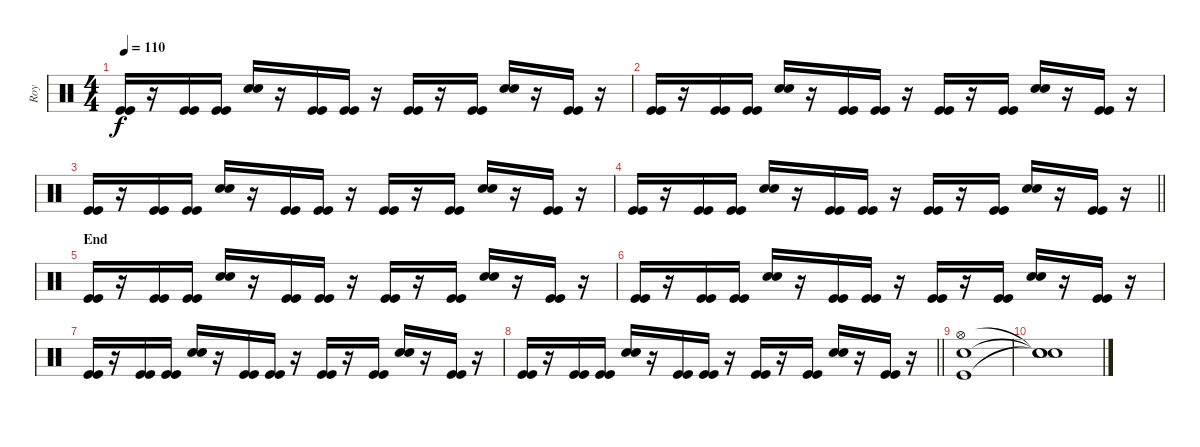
\track ("Roy" "Roy") {instrument percussion}
\staff {score}
\articulation defaults
\ts (4 4)
\section ("" "")
\tempo 110
\clef neutral
\ks c
("Kick (hit)" "Kick (hit)").16{dy f} r.16 ("Kick (hit)" "Kick (hit)").16 ("Kick (hit)" "Kick (hit)").16 ("Electric Snare (hit)" "Electric Snare (hit)").16 r.16 ("Kick (hit)" "Kick (hit)").16 ("Kick (hit)" "Kick (hit)").16 r.16 ("Kick (hit)" "Kick (hit)").16 r.16 ("Kick (hit)" "Kick (hit)").16 ("Electric Snare (hit)" "Electric Snare (hit)").16 r.16 ("Kick (hit)" "Kick (hit)").16 r.16 |
("Kick (hit)" "Kick (hit)").16 r.16 ("Kick (hit)" "Kick (hit)").16 ("Kick (hit)" "Kick (hit)").16 ("Electric Snare (hit)" "Electric Snare (hit)").16 r.16 ("Kick (hit)" "Kick (hit)").16 ("Kick (hit)" "Kick (hit)").16 r.16 ("Kick (hit)" "Kick (hit)").16 r.16 ("Kick (hit)" "Kick (hit)").16 ("Electric Snare (hit)" "Electric Snare (hit)").16 r.16 ("Kick (hit)" "Kick (hit)").16 r.16 |
("Kick (hit)" "Kick (hit)").16 r.16 ("Kick (hit)" "Kick (hit)").16 ("Kick (hit)" "Kick (hit)").16 ("Electric Snare (hit)" "Electric Snare (hit)").16 r.16 ("Kick (hit)" "Kick (hit)").16 ("Kick (hit)" "Kick (hit)").16 r.16 ("Kick (hit)" "Kick (hit)").16 r.16 ("Kick (hit)" "Kick (hit)").16 ("Electric Snare (hit)" "Electric Snare (hit)").16 r.16 ("Kick (hit)" "Kick (hit)").16 r.16 |
\barLineRight lightlight
("Kick (hit)" "Kick (hit)").16 r.16 ("Kick (hit)" "Kick (hit)").16 ("Kick (hit)" "Kick (hit)").16 ("Electric Snare (hit)" "Electric Snare (hit)").16 r.16 ("Kick (hit)" "Kick (hit)").16 ("Kick (hit)" "Kick (hit)").16 r.16 ("Kick (hit)" "Kick (hit)").16 r.16 ("Kick (hit)" "Kick (hit)").16 ("Electric Snare (hit)" "Electric Snare (hit)").16 r.16 ("Kick (hit)" "Kick (hit)").16 r.16 |
\section ("" "End")
("Kick (hit)" "Kick (hit)").16 r.16 ("Kick (hit)" "Kick (hit)").16 ("Kick (hit)" "Kick (hit)").16 ("Electric Snare (hit)" "Electric Snare (hit)").16 r.16 ("Kick (hit)" "Kick (hit)").16 ("Kick (hit)" "Kick (hit)").16 r.16 ("Kick (hit)" "Kick (hit)").16 r.16 ("Kick (hit)" "Kick (hit)").16 ("Electric Snare (hit)" "Electric Snare (hit)").16 r.16 ("Kick (hit)" "Kick (hit)").16 r.16 |
("Kick (hit)" "Kick (hit)").16 r.16 ("Kick (hit)" "Kick (hit)").16 ("Kick (hit)" "Kick (hit)").16 ("Electric Snare (hit)" "Electric Snare (hit)").16 r.16 ("Kick (hit)" "Kick (hit)").16 ("Kick (hit)" "Kick (hit)").16 r.16 ("Kick (hit)" "Kick (hit)").16 r.16 ("Kick (hit)" "Kick (hit)").16 ("Electric Snare (hit)" "Electric Snare (hit)").16 r.16 ("Kick (hit)" "Kick (hit)").16 r.16 |
("Kick (hit)" "Kick (hit)").16 r.16 ("Kick (hit)" "Kick (hit)").16 ("Kick (hit)" "Kick (hit)").16 ("Electric Snare (hit)" "Electric Snare (hit)").16 r.16 ("Kick (hit)" "Kick (hit)").16 ("Kick (hit)" "Kick (hit)").16 r.16 ("Kick (hit)" "Kick (hit)").16 r.16 ("Kick (hit)" "Kick (hit)").16 ("Electric Snare (hit)" "Electric Snare (hit)").16 r.16 ("Kick (hit)" "Kick (hit)").16 r.16 |
\barLineRight lightlight
("Kick (hit)" "Kick (hit)").16 r.16 ("Kick (hit)" "Kick (hit)").16 ("Kick (hit)" "Kick (hit)").16 ("Electric Snare (hit)" "Electric Snare (hit)").16 r.16 ("Kick (hit)" "Kick (hit)").16 ("Kick (hit)" "Kick (hit)").16 r.16 ("Kick (hit)" "Kick (hit)").16 r.16 ("Kick (hit)" "Kick (hit)").16 ("Electric Snare (hit)" "Electric Snare (hit)").16 r.16 ("Kick (hit)" "Kick (hit)").16 r.16 |
("Hi-Hat (open)" "Electric Snare (hit)" "Kick (hit)").1 |
("Snare (hit)"{t} "Snare (hit)"{t} "Snare (hit)"{t}).1
